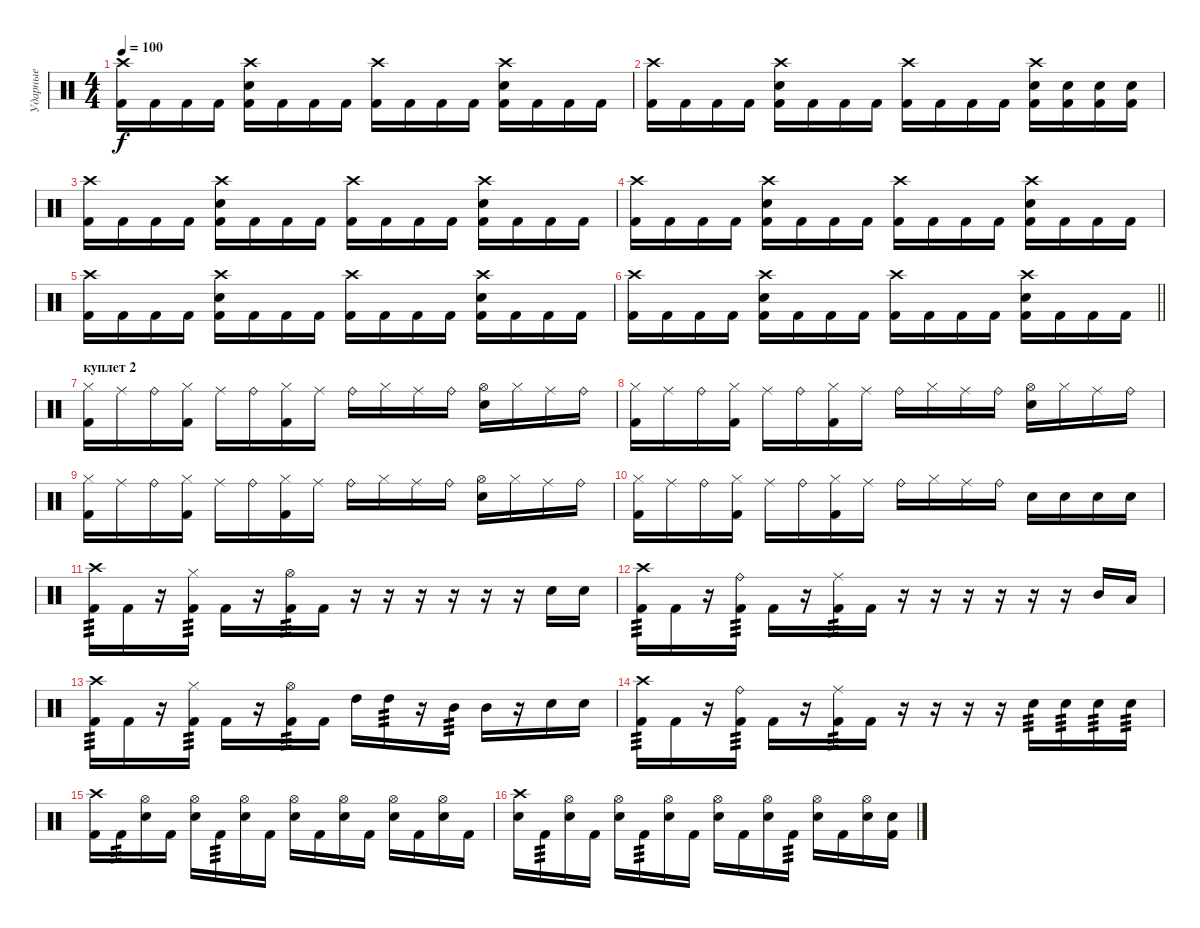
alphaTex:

\track ("Ударные" "Ударные") {instrument percussion}
\staff {score}
\articulation defaults
\ts (4 4)
\tempo 100
\clef neutral
\ks c
("Crash high (hit)" "Kick (hit) 2").16{dy f} "Kick (hit) 2".16 "Kick (hit) 2".16 "Kick (hit) 2".16 ("Crash high (hit)" "Electric Snare (hit)" "Kick (hit) 2").16 "Kick (hit) 2".16 "Kick (hit) 2".16 "Kick (hit) 2".16 ("Crash high (hit)" "Kick (hit) 2").16 "Kick (hit) 2".16 "Kick (hit) 2".16 "Kick (hit) 2".16 ("Crash high (hit)" "Electric Snare (hit)" "Kick (hit) 2").16 "Kick (hit) 2".16 "Kick (hit) 2".16 "Kick (hit) 2".16 |
("Crash high (hit)" "Kick (hit) 2").16 "Kick (hit) 2".16 "Kick (hit) 2".16 "Kick (hit) 2".16 ("Crash high (hit)" "Electric Snare (hit)" "Kick (hit) 2").16 "Kick (hit) 2".16 "Kick (hit) 2".16 "Kick (hit) 2".16 ("Crash high (hit)" "Kick (hit) 2").16 "Kick (hit) 2".16 "Kick (hit) 2".16 "Kick (hit) 2".16 ("Crash high (hit)" "Electric Snare (hit)" "Kick (hit) 2").16 ("Electric Snare (hit)" "Kick (hit) 2").16 ("Electric Snare (hit)" "Kick (hit) 2").16 ("Electric Snare (hit)" "Kick (hit) 2").16 |
("Crash high (hit)" "Kick (hit) 2").16 "Kick (hit) 2".16 "Kick (hit) 2".16 "Kick (hit) 2".16 ("Crash high (hit)" "Electric Snare (hit)" "Kick (hit) 2").16 "Kick (hit) 2".16 "Kick (hit) 2".16 "Kick (hit) 2".16 ("Crash high (hit)" "Kick (hit) 2").16 "Kick (hit) 2".16 "Kick (hit) 2".16 "Kick (hit) 2".16 ("Crash high (hit)" "Electric Snare (hit)" "Kick (hit) 2").16 "Kick (hit) 2".16 "Kick (hit) 2".16 "Kick (hit) 2".16 |
("Crash high (hit)" "Kick (hit) 2").16 "Kick (hit) 2".16 "Kick (hit) 2".16 "Kick (hit) 2".16 ("Crash high (hit)" "Electric Snare (hit)" "Kick (hit) 2").16 "Kick (hit) 2".16 "Kick (hit) 2".16 "Kick (hit) 2".16 ("Crash high (hit)" "Kick (hit) 2").16 "Kick (hit) 2".16 "Kick (hit) 2".16 "Kick (hit) 2".16 ("Crash high (hit)" "Electric Snare (hit)" "Kick (hit) 2").16 "Kick (hit) 2".16 "Kick (hit) 2".16 "Kick (hit) 2".16 |
("Crash high (hit)" "Kick (hit) 2").16 "Kick (hit) 2".16 "Kick (hit) 2".16 "Kick (hit) 2".16 ("Crash high (hit)" "Electric Snare (hit)" "Kick (hit) 2").16 "Kick (hit) 2".16 "Kick (hit) 2".16 "Kick (hit) 2".16 ("Crash high (hit)" "Kick (hit) 2").16 "Kick (hit) 2".16 "Kick (hit) 2".16 "Kick (hit) 2".16 ("Crash high (hit)" "Electric Snare (hit)" "Kick (hit) 2").16 "Kick (hit) 2".16 "Kick (hit) 2".16 "Kick (hit) 2".16 |
\barLineRight lightlight
("Crash high (hit)" "Kick (hit) 2").16 "Kick (hit) 2".16 "Kick (hit) 2".16 "Kick (hit) 2".16 ("Crash high (hit)" "Electric Snare (hit)" "Kick (hit) 2").16 "Kick (hit) 2".16 "Kick (hit) 2".16 "Kick (hit) 2".16 ("Crash high (hit)" "Kick (hit) 2").16 "Kick (hit) 2".16 "Kick (hit) 2".16 "Kick (hit) 2".16 ("Crash high (hit)" "Electric Snare (hit)" "Kick (hit) 2").16 "Kick (hit) 2".16 "Kick (hit) 2".16 "Kick (hit) 2".16 |
\section ("" "куплет 2")
("Hi-Hat (closed)" "Kick (hit) 2").16 "Ride (middle)".16 "Ride (bell)".16 ("Hi-Hat (closed)" "Kick (hit) 2").16 "Ride (middle)".16 "Ride (bell)".16 ("Hi-Hat (closed)" "Kick (hit) 2").16 "Ride (middle)".16 "Ride (bell)".16 "Hi-Hat (closed)".16 "Ride (middle)".16 "Ride (bell)".16 ("Hi-Hat (open)" "Electric Snare (hit)").16 "Hi-Hat (closed)".16 "Ride (middle)".16 "Ride (bell)".16 |
("Hi-Hat (closed)" "Kick (hit) 2").16 "Ride (middle)".16 "Ride (bell)".16 ("Hi-Hat (closed)" "Kick (hit) 2").16 "Ride (middle)".16 "Ride (bell)".16 ("Hi-Hat (closed)" "Kick (hit) 2").16 "Ride (middle)".16 "Ride (bell)".16 "Hi-Hat (closed)".16 "Ride (middle)".16 "Ride (bell)".16 ("Hi-Hat (open)" "Electric Snare (hit)").16 "Hi-Hat (closed)".16 "Ride (middle)".16 "Ride (bell)".16 |
("Hi-Hat (closed)" "Kick (hit) 2").16 "Ride (middle)".16 "Ride (bell)".16 ("Hi-Hat (closed)" "Kick (hit) 2").16 "Ride (middle)".16 "Ride (bell)".16 ("Hi-Hat (closed)" "Kick (hit) 2").16 "Ride (middle)".16 "Ride (bell)".16 "Hi-Hat (closed)".16 "Ride (middle)".16 "Ride (bell)".16 ("Hi-Hat (open)" "Electric Snare (hit)").16 "Hi-Hat (closed)".16 "Ride (middle)".16 "Ride (bell)".16 |
("Hi-Hat (closed)" "Kick (hit) 2").16 "Ride (middle)".16 "Ride (bell)".16 ("Hi-Hat (closed)" "Kick (hit) 2").16 "Ride (middle)".16 "Ride (bell)".16 ("Hi-Hat (closed)" "Kick (hit) 2").16 "Ride (middle)".16 "Ride (bell)".16 "Hi-Hat (closed)".16 "Ride (middle)".16 "Ride (bell)".16 "Electric Snare (hit)".16 "Electric Snare (hit)".16 "Electric Snare (hit)".16 "Electric Snare (hit)".16 |
("Crash high (hit)" "Kick (hit) 2").16{tp 3} "Kick (hit) 2".16 r.16 ("Hi-Hat (closed)" "Kick (hit) 2").16{tp 3} "Kick (hit) 2".16 r.16 ("Hi-Hat (open)" "Kick (hit) 2").16{tp 3} "Kick (hit) 2".16 r.16 r.16 r.16 r.16 r.16 r.16 "Electric Snare (hit)".16 "Electric Snare (hit)".16 |
("Crash high (hit)" "Kick (hit) 2").16{tp 3} "Kick (hit) 2".16 r.16 ("Ride (bell)" "Kick (hit) 2").16{tp 3} "Kick (hit) 2".16 r.16 ("Ride (middle)" "Kick (hit) 2").16{tp 3} "Kick (hit) 2".16 r.16 r.16 r.16 r.16 r.16 r.16 "Mid Tom (hit)".16 "Low Tom (hit)".16 |
("Crash high (hit)" "Kick (hit) 2").16{tp 3} "Kick (hit) 2".16 r.16 ("Hi-Hat (closed)" "Kick (hit) 2").16{tp 3} "Kick (hit) 2".16 r.16 ("Hi-Hat (open)" "Kick (hit) 2").16{tp 3} "Kick (hit) 2".16 "High Tom (hit)".16 "High Tom (hit)".16{tp 3} r.16 "Mid Tom (hit)".16{tp 3} "Mid Tom (hit)".16 r.16 "Electric Snare (hit)".16 "Electric Snare (hit)".16 |
("Crash high (hit)" "Kick (hit) 2").16{tp 3} "Kick (hit) 2".16 r.16 ("Ride (bell)" "Kick (hit) 2").16{tp 3} "Kick (hit) 2".16 r.16 ("Ride (middle)" "Kick (hit) 2").16{tp 3} "Kick (hit) 2".16 r.16 r.16 r.16 r.16 "Electric Snare (hit)".16{tp 3} "Electric Snare (hit)".16{tp 3} "Electric Snare (hit)".16{tp 3} "Electric Snare (hit)".16{tp 3} |
("Crash high (hit)" "Kick (hit) 2").16 "Kick (hit) 2".16{tp 3} ("Hi-Hat (open)" "Electric Snare (hit)").16 "Kick (hit) 2".16 ("Hi-Hat (open)" "Electric Snare (hit)").16 "Kick (hit) 2".16{tp 3} ("Hi-Hat (open)" "Electric Snare (hit)").16 "Kick (hit) 2".16 ("Hi-Hat (open)" "Electric Snare (hit)").16 "Kick (hit) 2".16 ("Hi-Hat (open)" "Electric Snare (hit)").16 "Kick (hit) 2".16 ("Hi-Hat (open)" "Electric Snare (hit)").16 "Kick (hit) 2".16 ("Hi-Hat (open)" "Electric Snare (hit)").16 "Kick (hit) 2".16 |
("Crash high (hit)" "Electric Snare (hit)").16 "Kick (hit) 2".16{tp 3} ("Hi-Hat (open)" "Electric Snare (hit)").16 "Kick (hit) 2".16 ("Hi-Hat (open)" "Electric Snare (hit)").16 "Kick (hit) 2".16{tp 3} ("Hi-Hat (open)" "Electric Snare (hit)").16 "Kick (hit) 2".16 ("Hi-Hat (open)" "Electric Snare (hit)").16 "Kick (hit) 2".16 ("Hi-Hat (open)" "Electric Snare (hit)").16 "Kick (hit) 2".16{tp 3} ("Hi-Hat (open)" "Electric Snare (hit)").16 "Kick (hit) 2".16 ("Hi-Hat (open)" "Electric Snare (hit)").16 ("Electric Snare (hit)" "Kick (hit) 2").16
